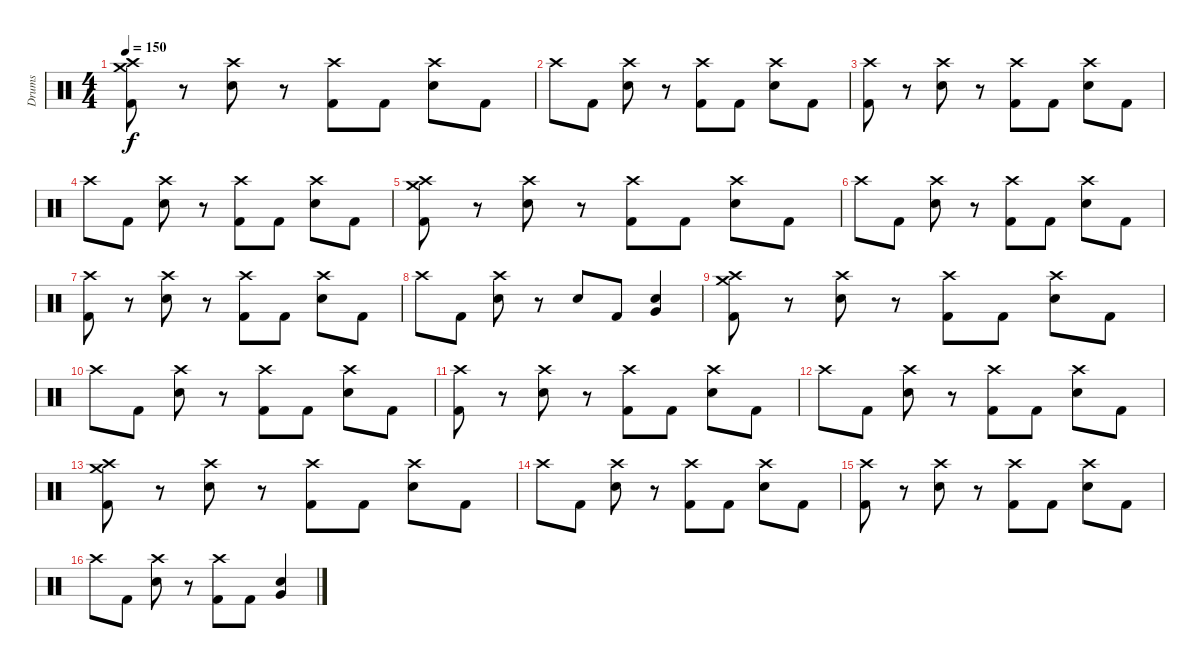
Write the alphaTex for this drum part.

\track ("Drums" "Drums") {instrument percussion}
\staff {score}
\articulation defaults
\ts (4 4)
\tempo 150
\clef neutral
\ks c
("Crash medium (hit)" "Crash high (hit)" "Kick (hit) 2").8{dy f} r.8 ("Crash high (hit)" "Electric Snare (hit)").8 r.8 ("Crash high (hit)" "Kick (hit) 2").8 "Kick (hit) 2".8 ("Crash high (hit)" "Electric Snare (hit)").8 "Kick (hit) 2".8 |
"Crash high (hit)".8 "Kick (hit) 2".8 ("Crash high (hit)" "Electric Snare (hit)").8 r.8 ("Crash high (hit)" "Kick (hit) 2").8 "Kick (hit) 2".8 ("Crash high (hit)" "Electric Snare (hit)").8 "Kick (hit) 2".8 |
("Crash high (hit)" "Kick (hit) 2").8 r.8 ("Crash high (hit)" "Electric Snare (hit)").8 r.8 ("Crash high (hit)" "Kick (hit) 2").8 "Kick (hit) 2".8 ("Crash high (hit)" "Electric Snare (hit)").8 "Kick (hit) 2".8 |
"Crash high (hit)".8 "Kick (hit) 2".8 ("Crash high (hit)" "Electric Snare (hit)").8 r.8 ("Crash high (hit)" "Kick (hit) 2").8 "Kick (hit) 2".8 ("Crash high (hit)" "Electric Snare (hit)").8 "Kick (hit) 2".8 |
("Crash medium (hit)" "Crash high (hit)" "Kick (hit) 2").8 r.8 ("Crash high (hit)" "Electric Snare (hit)").8 r.8 ("Crash high (hit)" "Kick (hit) 2").8 "Kick (hit) 2".8 ("Crash high (hit)" "Electric Snare (hit)").8 "Kick (hit) 2".8 |
"Crash high (hit)".8 "Kick (hit) 2".8 ("Crash high (hit)" "Electric Snare (hit)").8 r.8 ("Crash high (hit)" "Kick (hit) 2").8 "Kick (hit) 2".8 ("Crash high (hit)" "Electric Snare (hit)").8 "Kick (hit) 2".8 |
("Crash high (hit)" "Kick (hit) 2").8 r.8 ("Crash high (hit)" "Electric Snare (hit)").8 r.8 ("Crash high (hit)" "Kick (hit) 2").8 "Kick (hit) 2".8 ("Crash high (hit)" "Electric Snare (hit)").8 "Kick (hit) 2".8 |
"Crash high (hit)".8 "Kick (hit) 2".8 ("Crash high (hit)" "Electric Snare (hit)").8 r.8 "Electric Snare (hit)".8 "Kick (hit) 2".8 ("Very Low Tom (hit)" "Electric Snare (hit)").4 |
("Crash medium (hit)" "Crash high (hit)" "Kick (hit) 2").8 r.8 ("Crash high (hit)" "Electric Snare (hit)").8 r.8 ("Crash high (hit)" "Kick (hit) 2").8 "Kick (hit) 2".8 ("Crash high (hit)" "Electric Snare (hit)").8 "Kick (hit) 2".8 |
"Crash high (hit)".8 "Kick (hit) 2".8 ("Crash high (hit)" "Electric Snare (hit)").8 r.8 ("Crash high (hit)" "Kick (hit) 2").8 "Kick (hit) 2".8 ("Crash high (hit)" "Electric Snare (hit)").8 "Kick (hit) 2".8 |
("Crash high (hit)" "Kick (hit) 2").8 r.8 ("Crash high (hit)" "Electric Snare (hit)").8 r.8 ("Crash high (hit)" "Kick (hit) 2").8 "Kick (hit) 2".8 ("Crash high (hit)" "Electric Snare (hit)").8 "Kick (hit) 2".8 |
"Crash high (hit)".8 "Kick (hit) 2".8 ("Crash high (hit)" "Electric Snare (hit)").8 r.8 ("Crash high (hit)" "Kick (hit) 2").8 "Kick (hit) 2".8 ("Crash high (hit)" "Electric Snare (hit)").8 "Kick (hit) 2".8 |
("Crash medium (hit)" "Crash high (hit)" "Kick (hit) 2").8 r.8 ("Crash high (hit)" "Electric Snare (hit)").8 r.8 ("Crash high (hit)" "Kick (hit) 2").8 "Kick (hit) 2".8 ("Crash high (hit)" "Electric Snare (hit)").8 "Kick (hit) 2".8 |
"Crash high (hit)".8 "Kick (hit) 2".8 ("Crash high (hit)" "Electric Snare (hit)").8 r.8 ("Crash high (hit)" "Kick (hit) 2").8 "Kick (hit) 2".8 ("Crash high (hit)" "Electric Snare (hit)").8 "Kick (hit) 2".8 |
("Crash high (hit)" "Kick (hit) 2").8 r.8 ("Crash high (hit)" "Electric Snare (hit)").8 r.8 ("Crash high (hit)" "Kick (hit) 2").8 "Kick (hit) 2".8 ("Crash high (hit)" "Electric Snare (hit)").8 "Kick (hit) 2".8 |
"Crash high (hit)".8 "Kick (hit) 2".8 ("Crash high (hit)" "Electric Snare (hit)").8 r.8 ("Crash high (hit)" "Kick (hit) 2").8 "Kick (hit) 2".8 ("Very Low Tom (hit)" "Electric Snare (hit)").4
